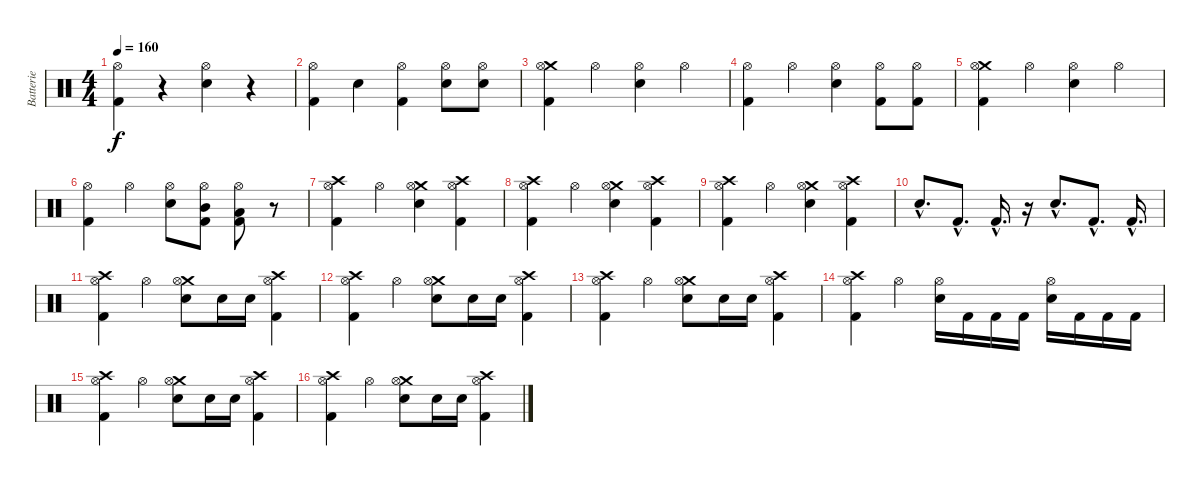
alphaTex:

\track ("Batterie" "Batterie") {instrument percussion}
\staff {score}
\articulation defaults
\ts (4 4)
\tempo 160
\clef neutral
\ks c
("Hi-Hat (open)" "Kick (hit) 2").4{dy f} r.4 ("Hi-Hat (open)" "Electric Snare (hit)").4 r.4 |
("Hi-Hat (open)" "Kick (hit) 2").4 "Electric Snare (hit)".4 ("Hi-Hat (open)" "Kick (hit) 2").4 ("Hi-Hat (open)" "Electric Snare (hit)").8 ("Hi-Hat (open)" "Electric Snare (hit)").8 |
("Crash medium (hit)" "Hi-Hat (open)" "Kick (hit) 2").4 "Hi-Hat (open)".4 ("Hi-Hat (open)" "Electric Snare (hit)").4 "Hi-Hat (open)".4 |
("Hi-Hat (open)" "Kick (hit) 2").4 "Hi-Hat (open)".4 ("Hi-Hat (open)" "Electric Snare (hit)").4 ("Hi-Hat (open)" "Kick (hit) 2").8 ("Hi-Hat (open)" "Kick (hit) 2").8 |
("Crash medium (hit)" "Hi-Hat (open)" "Kick (hit) 2").4 "Hi-Hat (open)".4 ("Hi-Hat (open)" "Electric Snare (hit)").4 "Hi-Hat (open)".4 |
("Hi-Hat (open)" "Kick (hit) 2").4 "Hi-Hat (open)".4 ("Hi-Hat (open)" "Electric Snare (hit)").8 ("Mid Tom (hit)" "Hi-Hat (open)" "Kick (hit) 2").8 ("Low Tom (hit)" "Hi-Hat (open)" "Kick (hit) 2").8 r.8 |
("Crash high (hit)" "Hi-Hat (open)" "Kick (hit) 2").4 "Hi-Hat (open)".4 ("Crash medium (hit)" "Hi-Hat (open)" "Electric Snare (hit)").4 ("Crash high (hit)" "Kick (hit) 2" "Hi-Hat (open)").4 |
("Crash high (hit)" "Hi-Hat (open)" "Kick (hit) 2").4 "Hi-Hat (open)".4 ("Crash medium (hit)" "Hi-Hat (open)" "Electric Snare (hit)").4 ("Crash high (hit)" "Kick (hit) 2" "Hi-Hat (open)").4 |
("Crash high (hit)" "Hi-Hat (open)" "Kick (hit) 2").4 "Hi-Hat (open)".4 ("Crash medium (hit)" "Hi-Hat (open)" "Electric Snare (hit)").4 ("Crash high (hit)" "Kick (hit) 2" "Hi-Hat (open)").4 |
"Electric Snare (hit)"{hac}.8{d} "Kick (hit) 2"{hac}.8{d} "Kick (hit) 2"{hac}.16{d} r.16 "Electric Snare (hit)"{hac}.8{d} "Kick (hit) 2"{hac}.8{d} "Kick (hit) 2"{hac}.16{d} |
("Crash high (hit)" "Hi-Hat (open)" "Kick (hit) 2").4 "Hi-Hat (open)".4 ("Crash medium (hit)" "Hi-Hat (open)" "Electric Snare (hit)").8 "Electric Snare (hit)".16 "Electric Snare (hit)".16 ("Crash high (hit)" "Kick (hit) 2" "Hi-Hat (open)").4 |
("Crash high (hit)" "Hi-Hat (open)" "Kick (hit) 2").4 "Hi-Hat (open)".4 ("Crash medium (hit)" "Hi-Hat (open)" "Electric Snare (hit)").8 "Electric Snare (hit)".16 "Electric Snare (hit)".16 ("Crash high (hit)" "Kick (hit) 2" "Hi-Hat (open)").4 |
("Crash high (hit)" "Hi-Hat (open)" "Kick (hit) 2").4 "Hi-Hat (open)".4 ("Crash medium (hit)" "Hi-Hat (open)" "Electric Snare (hit)").8 "Electric Snare (hit)".16 "Electric Snare (hit)".16 ("Crash high (hit)" "Kick (hit) 2" "Hi-Hat (open)").4 |
("Crash high (hit)" "Hi-Hat (open)" "Kick (hit) 2").4 "Hi-Hat (open)".4 ("Hi-Hat (open)" "Electric Snare (hit)").16 "Kick (hit) 2".16 "Kick (hit) 2".16 "Kick (hit) 2".16 ("Electric Snare (hit)" "Hi-Hat (open)").16 "Kick (hit) 2".16 "Kick (hit) 2".16 "Kick (hit) 2".16 |
("Crash high (hit)" "Hi-Hat (open)" "Kick (hit) 2").4 "Hi-Hat (open)".4 ("Crash medium (hit)" "Hi-Hat (open)" "Electric Snare (hit)").8 "Electric Snare (hit)".16 "Electric Snare (hit)".16 ("Crash high (hit)" "Kick (hit) 2" "Hi-Hat (open)").4 |
("Crash high (hit)" "Hi-Hat (open)" "Kick (hit) 2").4 "Hi-Hat (open)".4 ("Crash medium (hit)" "Hi-Hat (open)" "Electric Snare (hit)").8 "Electric Snare (hit)".16 "Electric Snare (hit)".16 ("Crash high (hit)" "Kick (hit) 2" "Hi-Hat (open)").4
